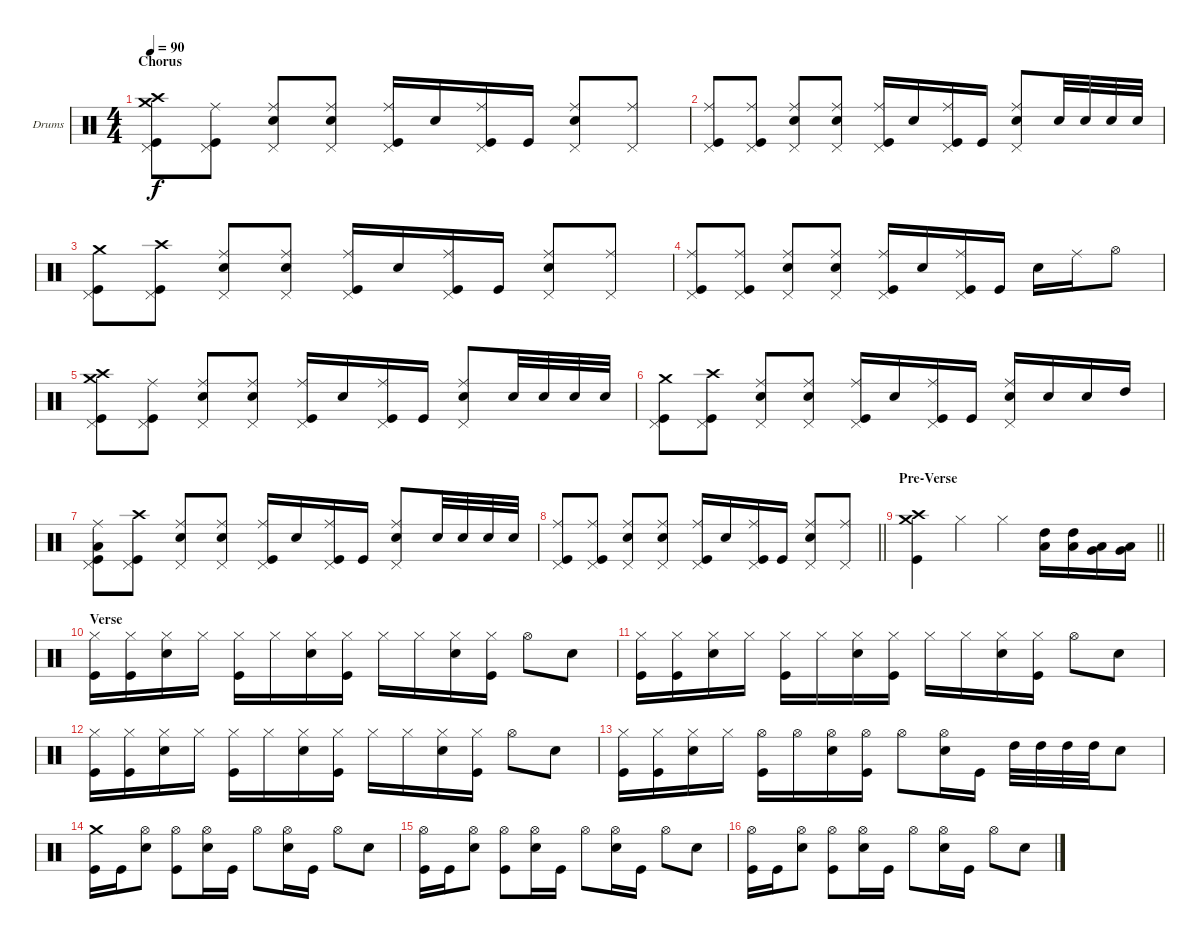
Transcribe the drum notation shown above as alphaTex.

\bracketExtendMode groupsimilarinstruments
\firstSystemTrackNameOrientation horizontal
\otherSystemsTrackNameOrientation horizontal
\track ("Rian Dawson" "Drums") {instrument percussion}
\staff {score}
\articulation defaults
\ts (4 4)
\section ("" "Chorus")
\tempo 90
\clef neutral
\scale
0.333333
\ks c
("Crash medium (hit)" "Crash high (hit)" "Pedal Hi-Hat (hit)" "Kick (hit)").8{dy f} ("Ride (middle)" "Pedal Hi-Hat (hit)" "Kick (hit)").8 ("Ride (middle)" "Pedal Hi-Hat (hit)" "Snare (hit) 2").8 ("Ride (middle)" "Pedal Hi-Hat (hit)" "Snare (hit) 2").8 ("Ride (middle)" "Pedal Hi-Hat (hit)" "Kick (hit)").16 "Snare (hit) 2".16 ("Ride (middle)" "Pedal Hi-Hat (hit)" "Kick (hit)").16 "Kick (hit)".16 ("Ride (middle)" "Pedal Hi-Hat (hit)" "Snare (hit) 2").8 ("Ride (middle)" "Pedal Hi-Hat (hit)").8 |
\scale
0.333333 ("Ride (middle)" "Pedal Hi-Hat (hit)" "Kick (hit)").8 ("Ride (middle)" "Pedal Hi-Hat (hit)" "Kick (hit)").8 ("Ride (middle)" "Pedal Hi-Hat (hit)" "Snare (hit) 2").8 ("Ride (middle)" "Pedal Hi-Hat (hit)" "Snare (hit) 2").8 ("Ride (middle)" "Pedal Hi-Hat (hit)" "Kick (hit)").16 "Snare (hit) 2".16 ("Ride (middle)" "Pedal Hi-Hat (hit)" "Kick (hit)").16 "Kick (hit)".16 ("Ride (middle)" "Pedal Hi-Hat (hit)" "Snare (hit) 2").8 "Snare (hit) 2".32 "Snare (hit) 2".32 "Snare (hit) 2".32 "Snare (hit) 2".32 |
\scale
0.333333 ("Crash medium (hit)" "Pedal Hi-Hat (hit)" "Kick (hit)").8 ("Crash high (hit)" "Pedal Hi-Hat (hit)" "Kick (hit)").8 ("Ride (middle)" "Pedal Hi-Hat (hit)" "Snare (hit) 2").8 ("Ride (middle)" "Pedal Hi-Hat (hit)" "Snare (hit) 2").8 ("Ride (middle)" "Pedal Hi-Hat (hit)" "Kick (hit)").16 "Snare (hit) 2".16 ("Ride (middle)" "Pedal Hi-Hat (hit)" "Kick (hit)").16 "Kick (hit)".16 ("Ride (middle)" "Pedal Hi-Hat (hit)" "Snare (hit) 2").8 ("Ride (middle)" "Pedal Hi-Hat (hit)").8 |
\scale
0.333333 ("Ride (middle)" "Pedal Hi-Hat (hit)" "Kick (hit)").8 ("Ride (middle)" "Pedal Hi-Hat (hit)" "Kick (hit)").8 ("Ride (middle)" "Pedal Hi-Hat (hit)" "Snare (hit) 2").8 ("Ride (middle)" "Pedal Hi-Hat (hit)" "Snare (hit) 2").8 ("Ride (middle)" "Pedal Hi-Hat (hit)" "Kick (hit)").16 "Snare (hit) 2".16 ("Ride (middle)" "Pedal Hi-Hat (hit)" "Kick (hit)").16 "Kick (hit)".16 "Snare (hit) 2".16 "Ride (middle)".16 "Hi-Hat (open)".8 |
\scale
0.333333 ("Crash medium (hit)" "Crash high (hit)" "Pedal Hi-Hat (hit)" "Kick (hit)").8 ("Ride (middle)" "Pedal Hi-Hat (hit)" "Kick (hit)").8 ("Ride (middle)" "Pedal Hi-Hat (hit)" "Snare (hit) 2").8 ("Ride (middle)" "Pedal Hi-Hat (hit)" "Snare (hit) 2").8 ("Ride (middle)" "Pedal Hi-Hat (hit)" "Kick (hit)").16 "Snare (hit) 2".16 ("Ride (middle)" "Pedal Hi-Hat (hit)" "Kick (hit)").16 "Kick (hit)".16 ("Ride (middle)" "Pedal Hi-Hat (hit)" "Snare (hit) 2").8 "Snare (hit) 2".32 "Snare (hit) 2".32 "Snare (hit) 2".32 "Snare (hit) 2".32 |
\scale
0.333333 ("Crash medium (hit)" "Pedal Hi-Hat (hit)" "Kick (hit)").8 ("Crash high (hit)" "Pedal Hi-Hat (hit)" "Kick (hit)").8 ("Ride (middle)" "Pedal Hi-Hat (hit)" "Snare (hit) 2").8 ("Ride (middle)" "Pedal Hi-Hat (hit)" "Snare (hit) 2").8 ("Ride (middle)" "Pedal Hi-Hat (hit)" "Kick (hit)").16 "Snare (hit) 2".16 ("Ride (middle)" "Pedal Hi-Hat (hit)" "Kick (hit)").16 "Kick (hit)".16 ("Ride (middle)" "Pedal Hi-Hat (hit)" "Snare (hit) 2").16 "Snare (hit) 2".16 "Snare (hit) 2".16 "High Tom (hit)".16 |
\scale
0.333333 ("Ride (middle)" "Pedal Hi-Hat (hit)" "Low Tom (hit)" "Kick (hit)").8 ("Crash high (hit)" "Pedal Hi-Hat (hit)" "Kick (hit)").8 ("Ride (middle)" "Pedal Hi-Hat (hit)" "Snare (hit) 2").8 ("Ride (middle)" "Pedal Hi-Hat (hit)" "Snare (hit) 2").8 ("Ride (middle)" "Pedal Hi-Hat (hit)" "Kick (hit)").16 "Snare (hit) 2".16 ("Ride (middle)" "Pedal Hi-Hat (hit)" "Kick (hit)").16 "Kick (hit)".16 ("Ride (middle)" "Pedal Hi-Hat (hit)" "Snare (hit) 2").8 "Snare (hit) 2".32 "Snare (hit) 2".32 "Snare (hit) 2".32 "Snare (hit) 2".32 |
\scale
0.333333
\barLineRight lightlight
("Ride (middle)" "Pedal Hi-Hat (hit)" "Kick (hit)").8 ("Ride (middle)" "Pedal Hi-Hat (hit)" "Kick (hit)").8 ("Ride (middle)" "Pedal Hi-Hat (hit)" "Snare (hit) 2").8 ("Ride (middle)" "Pedal Hi-Hat (hit)" "Snare (hit) 2").8 ("Ride (middle)" "Pedal Hi-Hat (hit)" "Kick (hit)").16 "Snare (hit) 2".16 ("Ride (middle)" "Pedal Hi-Hat (hit)" "Kick (hit)").16 "Kick (hit)".16 ("Ride (middle)" "Pedal Hi-Hat (hit)" "Snare (hit) 2").8 ("Ride (middle)" "Pedal Hi-Hat (hit)").8 |
\section ("" "Pre-Verse")
\scale
0.333333
\barLineRight lightlight
("Crash medium (hit)" "Crash high (hit)" "Kick (hit)").4 "Hi-Hat (closed)".4 "Hi-Hat (closed)".4 ("High Tom (hit)" "Low Tom (hit)").16 ("High Tom (hit)" "Low Tom (hit)").16 ("Low Tom (hit)" "Very Low Tom (hit)").16 ("Low Tom (hit)" "Very Low Tom (hit)").16 |
\section ("" "Verse")
\scale
0.333333 ("Hi-Hat (closed)" "Kick (hit)").16 ("Hi-Hat (closed)" "Kick (hit)").16 ("Hi-Hat (closed)" "Snare (hit) 2").16 "Hi-Hat (closed)".16 ("Hi-Hat (closed)" "Kick (hit)").16 "Hi-Hat (closed)".16 ("Hi-Hat (closed)" "Snare (hit) 2").16 ("Hi-Hat (closed)" "Kick (hit)").16 "Hi-Hat (closed)".16 "Hi-Hat (closed)".16 ("Hi-Hat (closed)" "Snare (hit) 2").16 ("Hi-Hat (closed)" "Kick (hit)").16 "Hi-Hat (open)".8 "Snare (hit) 2".8 |
\scale
0.333333 ("Hi-Hat (closed)" "Kick (hit)").16 ("Hi-Hat (closed)" "Kick (hit)").16 ("Hi-Hat (closed)" "Snare (hit) 2").16 "Hi-Hat (closed)".16 ("Hi-Hat (closed)" "Kick (hit)").16 "Hi-Hat (closed)".16 ("Hi-Hat (closed)" "Snare (hit) 2").16 ("Hi-Hat (closed)" "Kick (hit)").16 "Hi-Hat (closed)".16 "Hi-Hat (closed)".16 ("Hi-Hat (closed)" "Snare (hit) 2").16 ("Hi-Hat (closed)" "Kick (hit)").16 "Hi-Hat (open)".8 "Snare (hit) 2".8 |
\scale
0.333333 ("Hi-Hat (closed)" "Kick (hit)").16 ("Hi-Hat (closed)" "Kick (hit)").16 ("Hi-Hat (closed)" "Snare (hit) 2").16 "Hi-Hat (closed)".16 ("Hi-Hat (closed)" "Kick (hit)").16 "Hi-Hat (closed)".16 ("Hi-Hat (closed)" "Snare (hit) 2").16 ("Hi-Hat (closed)" "Kick (hit)").16 "Hi-Hat (closed)".16 "Hi-Hat (closed)".16 ("Hi-Hat (closed)" "Snare (hit) 2").16 ("Hi-Hat (closed)" "Kick (hit)").16 "Hi-Hat (open)".8 "Snare (hit) 2".8 |
\scale
0.333333 ("Hi-Hat (closed)" "Kick (hit)").16 ("Hi-Hat (closed)" "Kick (hit)").16 ("Hi-Hat (closed)" "Snare (hit) 2").16 "Hi-Hat (closed)".16 ("Hi-Hat (open)" "Kick (hit)").16 "Hi-Hat (open)".16 ("Hi-Hat (open)" "Snare (hit) 2").16 ("Hi-Hat (open)" "Kick (hit)").16 "Hi-Hat (open)".8 ("Hi-Hat (open)" "Snare (hit) 2").16 "Kick (hit)".16 "High Tom (hit)".32 "High Tom (hit)".32 "High Tom (hit)".32 "High Tom (hit)".32 "Snare (hit) 2".8 |
\scale
0.333333 ("Crash medium (hit)" "Kick (hit)").16 "Kick (hit)".16 ("Hi-Hat (open)" "Snare (hit) 2").8 ("Hi-Hat (open)" "Kick (hit)").8 ("Hi-Hat (open)" "Snare (hit) 2").16 "Kick (hit)".16 "Hi-Hat (open)".8 ("Hi-Hat (open)" "Snare (hit) 2").16 "Kick (hit)".16 "Hi-Hat (open)".8 "Snare (hit) 2".8 |
\scale
0.333333 ("Hi-Hat (open)" "Kick (hit)").16 "Kick (hit)".16 ("Hi-Hat (open)" "Snare (hit) 2").8 ("Hi-Hat (open)" "Kick (hit)").8 ("Hi-Hat (open)" "Snare (hit) 2").16 "Kick (hit)".16 "Hi-Hat (open)".8 ("Hi-Hat (open)" "Snare (hit) 2").16 "Kick (hit)".16 "Hi-Hat (open)".8 "Snare (hit) 2".8 |
\scale
0.333333 ("Hi-Hat (open)" "Kick (hit)").16 "Kick (hit)".16 ("Hi-Hat (open)" "Snare (hit) 2").8 ("Hi-Hat (open)" "Kick (hit)").8 ("Hi-Hat (open)" "Snare (hit) 2").16 "Kick (hit)".16 "Hi-Hat (open)".8 ("Hi-Hat (open)" "Snare (hit) 2").16 "Kick (hit)".16 "Hi-Hat (open)".8 "Snare (hit) 2".8
